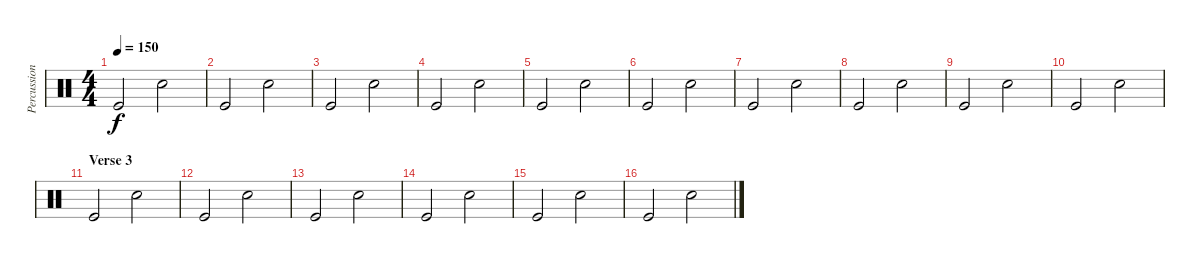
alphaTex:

\track ("Percussions" "Percussion") {instrument percussion}
\staff {score}
\articulation defaults
\ts (4 4)
\tempo 150
\clef neutral
\ks c "Kick (hit)".2{dy f} "Electric Snare (hit)".2
|
"Kick (hit)".2 "Electric Snare (hit)".2 |
"Kick (hit)".2 "Electric Snare (hit)".2 |
"Kick (hit)".2 "Electric Snare (hit)".2 |
"Kick (hit)".2 "Electric Snare (hit)".2 |
"Kick (hit)".2 "Electric Snare (hit)".2 |
"Kick (hit)".2 "Electric Snare (hit)".2 |
"Kick (hit)".2 "Electric Snare (hit)".2 |
"Kick (hit)".2 "Electric Snare (hit)".2 |
"Kick (hit)".2 "Electric Snare (hit)".2 |
\section ("" "Verse 3")
"Kick (hit)".2 "Electric Snare (hit)".2 |
"Kick (hit)".2 "Electric Snare (hit)".2 |
"Kick (hit)".2 "Electric Snare (hit)".2 |
"Kick (hit)".2 "Electric Snare (hit)".2 |
"Kick (hit)".2 "Electric Snare (hit)".2 |
"Kick (hit)".2 "Electric Snare (hit)".2
